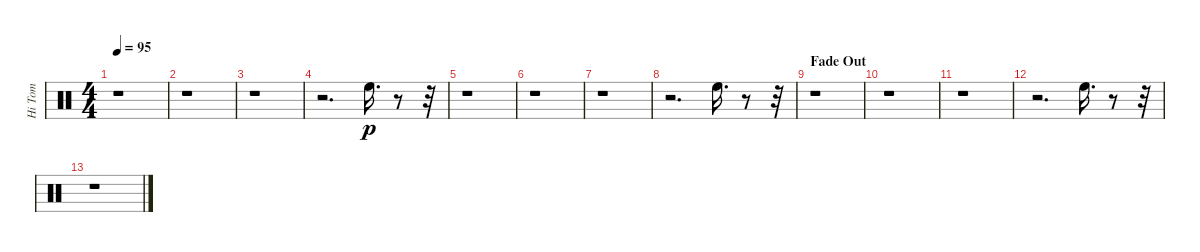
\track ("Hi Tom" "Hi Tom") {instrument percussion}
\staff {score}
\articulation defaults
\ts (4 4)
\tempo 95
\clef neutral
\ks c
r.1{dy p} |
r.1 |
r.1 |
r.2{d} "High Floor Tom (hit)".16{d} r.8 r.32 |
r.1 |
r.1 |
r.1 |
r.2{d} "High Floor Tom (hit)".16{d} r.8 r.32 |
\section ("" "Fade Out")
r.1{volume 0} |
r.1 |
r.1 |
r.2{d} "High Floor Tom (hit)".16{d} r.8 r.32 |
r.1
